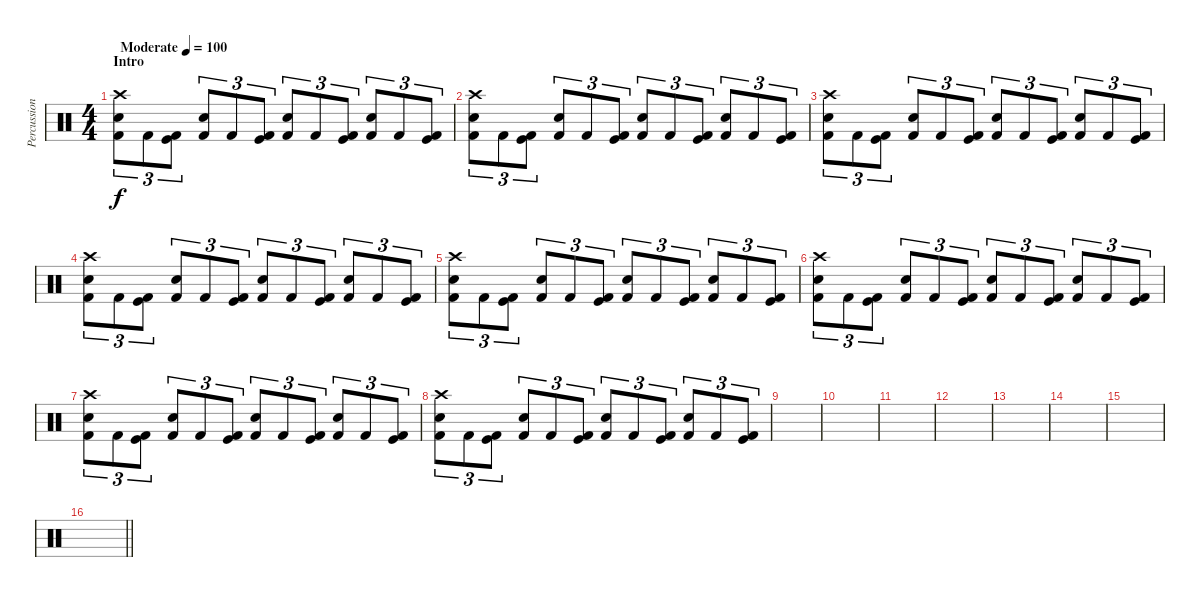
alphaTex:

\track ("Percussion" "Percussion") {instrument percussion}
\staff {score}
\articulation defaults
\ts (4 4)
\section ("" "Intro")
\tempo (100 "Moderate")
\clef neutral
\ks c
("Crash high (hit)" "Electric Snare (hit)" "Kick (hit) 2").8{tu (3 2) dy f} "Kick (hit) 2".8{tu (3 2)} ("Kick (hit)" "Kick (hit) 2").8{tu (3 2)} ("Electric Snare (hit)" "Kick (hit) 2").8{tu (3 2)} "Kick (hit) 2".8{tu (3 2)} ("Kick (hit)" "Kick (hit) 2").8{tu (3 2)} ("Electric Snare (hit)" "Kick (hit) 2").8{tu (3 2)} "Kick (hit) 2".8{tu (3 2)} ("Kick (hit)" "Kick (hit) 2").8{tu (3 2)} ("Electric Snare (hit)" "Kick (hit) 2").8{tu (3 2)} "Kick (hit) 2".8{tu (3 2)} ("Kick (hit)" "Kick (hit) 2").8{tu (3 2)} |
("Crash high (hit)" "Electric Snare (hit)" "Kick (hit) 2").8{tu (3 2)} "Kick (hit) 2".8{tu (3 2)} ("Kick (hit)" "Kick (hit) 2").8{tu (3 2)} ("Electric Snare (hit)" "Kick (hit) 2").8{tu (3 2)} "Kick (hit) 2".8{tu (3 2)} ("Kick (hit)" "Kick (hit) 2").8{tu (3 2)} ("Electric Snare (hit)" "Kick (hit) 2").8{tu (3 2)} "Kick (hit) 2".8{tu (3 2)} ("Kick (hit)" "Kick (hit) 2").8{tu (3 2)} ("Electric Snare (hit)" "Kick (hit) 2").8{tu (3 2)} "Kick (hit) 2".8{tu (3 2)} ("Kick (hit)" "Kick (hit) 2").8{tu (3 2)} |
("Crash high (hit)" "Electric Snare (hit)" "Kick (hit) 2").8{tu (3 2)} "Kick (hit) 2".8{tu (3 2)} ("Kick (hit)" "Kick (hit) 2").8{tu (3 2)} ("Electric Snare (hit)" "Kick (hit) 2").8{tu (3 2)} "Kick (hit) 2".8{tu (3 2)} ("Kick (hit)" "Kick (hit) 2").8{tu (3 2)} ("Electric Snare (hit)" "Kick (hit) 2").8{tu (3 2)} "Kick (hit) 2".8{tu (3 2)} ("Kick (hit)" "Kick (hit) 2").8{tu (3 2)} ("Electric Snare (hit)" "Kick (hit) 2").8{tu (3 2)} "Kick (hit) 2".8{tu (3 2)} ("Kick (hit)" "Kick (hit) 2").8{tu (3 2)} |
("Crash high (hit)" "Electric Snare (hit)" "Kick (hit) 2").8{tu (3 2)} "Kick (hit) 2".8{tu (3 2)} ("Kick (hit)" "Kick (hit) 2").8{tu (3 2)} ("Electric Snare (hit)" "Kick (hit) 2").8{tu (3 2)} "Kick (hit) 2".8{tu (3 2)} ("Kick (hit)" "Kick (hit) 2").8{tu (3 2)} ("Electric Snare (hit)" "Kick (hit) 2").8{tu (3 2)} "Kick (hit) 2".8{tu (3 2)} ("Kick (hit)" "Kick (hit) 2").8{tu (3 2)} ("Electric Snare (hit)" "Kick (hit) 2").8{tu (3 2)} "Kick (hit) 2".8{tu (3 2)} ("Kick (hit)" "Kick (hit) 2").8{tu (3 2)} |
("Crash high (hit)" "Electric Snare (hit)" "Kick (hit) 2").8{tu (3 2)} "Kick (hit) 2".8{tu (3 2)} ("Kick (hit)" "Kick (hit) 2").8{tu (3 2)} ("Electric Snare (hit)" "Kick (hit) 2").8{tu (3 2)} "Kick (hit) 2".8{tu (3 2)} ("Kick (hit)" "Kick (hit) 2").8{tu (3 2)} ("Electric Snare (hit)" "Kick (hit) 2").8{tu (3 2)} "Kick (hit) 2".8{tu (3 2)} ("Kick (hit)" "Kick (hit) 2").8{tu (3 2)} ("Electric Snare (hit)" "Kick (hit) 2").8{tu (3 2)} "Kick (hit) 2".8{tu (3 2)} ("Kick (hit)" "Kick (hit) 2").8{tu (3 2)} |
("Crash high (hit)" "Electric Snare (hit)" "Kick (hit) 2").8{tu (3 2)} "Kick (hit) 2".8{tu (3 2)} ("Kick (hit)" "Kick (hit) 2").8{tu (3 2)} ("Electric Snare (hit)" "Kick (hit) 2").8{tu (3 2)} "Kick (hit) 2".8{tu (3 2)} ("Kick (hit)" "Kick (hit) 2").8{tu (3 2)} ("Electric Snare (hit)" "Kick (hit) 2").8{tu (3 2)} "Kick (hit) 2".8{tu (3 2)} ("Kick (hit)" "Kick (hit) 2").8{tu (3 2)} ("Electric Snare (hit)" "Kick (hit) 2").8{tu (3 2)} "Kick (hit) 2".8{tu (3 2)} ("Kick (hit)" "Kick (hit) 2").8{tu (3 2)} |
("Crash high (hit)" "Electric Snare (hit)" "Kick (hit) 2").8{tu (3 2)} "Kick (hit) 2".8{tu (3 2)} ("Kick (hit)" "Kick (hit) 2").8{tu (3 2)} ("Electric Snare (hit)" "Kick (hit) 2").8{tu (3 2)} "Kick (hit) 2".8{tu (3 2)} ("Kick (hit)" "Kick (hit) 2").8{tu (3 2)} ("Electric Snare (hit)" "Kick (hit) 2").8{tu (3 2)} "Kick (hit) 2".8{tu (3 2)} ("Kick (hit)" "Kick (hit) 2").8{tu (3 2)} ("Electric Snare (hit)" "Kick (hit) 2").8{tu (3 2)} "Kick (hit) 2".8{tu (3 2)} ("Kick (hit)" "Kick (hit) 2").8{tu (3 2)} |
("Crash high (hit)" "Electric Snare (hit)" "Kick (hit) 2").8{tu (3 2)} "Kick (hit) 2".8{tu (3 2)} ("Kick (hit)" "Kick (hit) 2").8{tu (3 2)} ("Electric Snare (hit)" "Kick (hit) 2").8{tu (3 2)} "Kick (hit) 2".8{tu (3 2)} ("Kick (hit)" "Kick (hit) 2").8{tu (3 2)} ("Electric Snare (hit)" "Kick (hit) 2").8{tu (3 2)} "Kick (hit) 2".8{tu (3 2)} ("Kick (hit)" "Kick (hit) 2").8{tu (3 2)} ("Electric Snare (hit)" "Kick (hit) 2").8{tu (3 2)} "Kick (hit) 2".8{tu (3 2)} ("Kick (hit)" "Kick (hit) 2").8{tu (3 2)} |
|
|
|
|
|
|
|
\barLineRight lightlight
